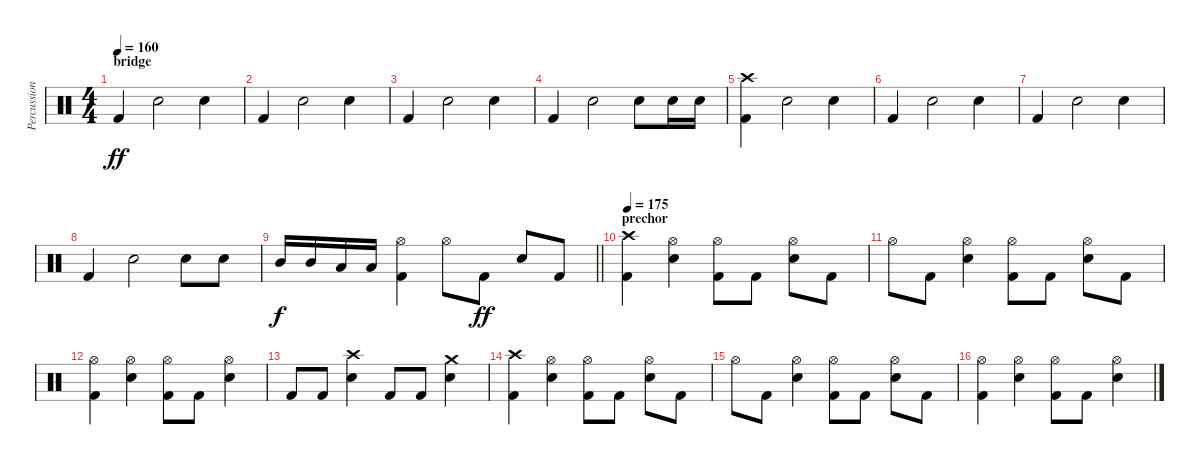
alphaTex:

\track ("Percussion" "Percussion") {instrument percussion}
\staff {score}
\articulation defaults
\ts (4 4)
\section ("" "bridge")
\tempo 160
\clef neutral
\ks c "Kick (hit) 2".4{dy ff} "Snare (hit) 2".2 "Snare (hit) 2".4
|
"Kick (hit) 2".4 "Snare (hit) 2".2 "Snare (hit) 2".4 |
"Kick (hit) 2".4 "Snare (hit) 2".2 "Snare (hit) 2".4 |
"Kick (hit) 2".4 "Snare (hit) 2".2 "Snare (hit) 2".8 "Snare (hit) 2".16 "Snare (hit) 2".16 |
("Crash high (hit)" "Kick (hit) 2").4 "Snare (hit) 2".2 "Snare (hit) 2".4 |
"Kick (hit) 2".4 "Snare (hit) 2".2 "Snare (hit) 2".4 |
"Kick (hit) 2".4 "Snare (hit) 2".2 "Snare (hit) 2".4 |
"Kick (hit) 2".4 "Snare (hit) 2".2 "Snare (hit) 2".8 "Snare (hit) 2".8 |
\barLineRight lightlight "Mid Tom (hit)".16{dy f} "Mid Tom (hit)".16 "Low Tom (hit)".16 "Low Tom (hit)".16
("Hi-Hat (open)" "Kick (hit) 2").4 "Hi-Hat (open)".8 "Kick (hit) 2".8{dy ff} "Snare (hit) 2".8 "Kick (hit) 2".8 |
\section ("" "prechor")
\tempo 175
("Crash high (hit)" "Kick (hit) 2").4 ("Hi-Hat (open)" "Snare (hit) 2").4 ("Hi-Hat (open)" "Kick (hit) 2").8 "Kick (hit) 2".8 ("Hi-Hat (open)" "Snare (hit) 2").8 "Kick (hit) 2".8 |
"Hi-Hat (open)".8 "Kick (hit) 2".8 ("Hi-Hat (open)" "Snare (hit) 2").4 ("Hi-Hat (open)" "Kick (hit) 2").8 "Kick (hit) 2".8 ("Hi-Hat (open)" "Snare (hit) 2").8 "Kick (hit) 2".8 |
("Hi-Hat (open)" "Kick (hit) 2").4 ("Hi-Hat (open)" "Snare (hit) 2").4 ("Hi-Hat (open)" "Kick (hit) 2").8 "Kick (hit) 2".8 ("Hi-Hat (open)" "Snare (hit) 2").4 |
"Kick (hit) 2".8 "Kick (hit) 2".8 ("Crash high (hit)" "Snare (hit) 2").4 "Kick (hit) 2".8 "Kick (hit) 2".8 ("Crash medium (hit)" "Snare (hit) 2").4 |
("Crash high (hit)" "Kick (hit) 2").4 ("Hi-Hat (open)" "Snare (hit) 2").4 ("Hi-Hat (open)" "Kick (hit) 2").8 "Kick (hit) 2".8 ("Hi-Hat (open)" "Snare (hit) 2").8 "Kick (hit) 2".8 |
"Hi-Hat (open)".8 "Kick (hit) 2".8 ("Hi-Hat (open)" "Snare (hit) 2").4 ("Hi-Hat (open)" "Kick (hit) 2").8 "Kick (hit) 2".8 ("Hi-Hat (open)" "Snare (hit) 2").8 "Kick (hit) 2".8 |
("Hi-Hat (open)" "Kick (hit) 2").4 ("Hi-Hat (open)" "Snare (hit) 2").4 ("Hi-Hat (open)" "Kick (hit) 2").8 "Kick (hit) 2".8 ("Hi-Hat (open)" "Snare (hit) 2").4
